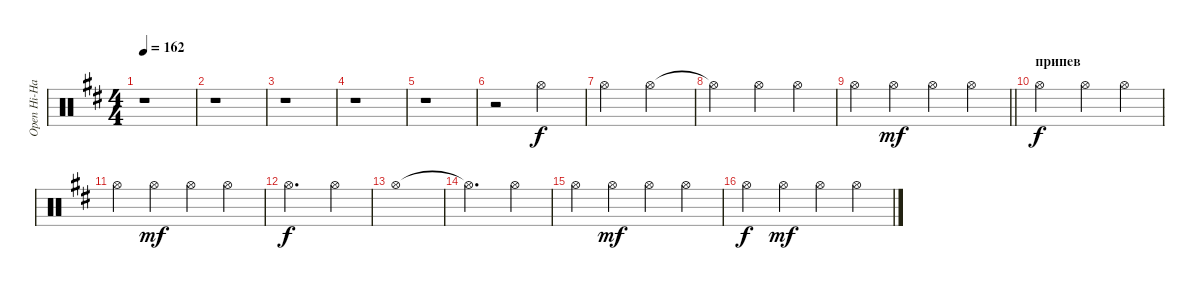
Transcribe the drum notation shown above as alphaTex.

\track ("Open Hi-Hat" "Open Hi-Ha") {instrument percussion}
\staff {score}
\articulation defaults
\ts (4 4)
\tempo 162
\clef neutral
\ks bminor
r.1{dy f} |
r.1 |
r.1 |
r.1 |
r.1 |
r.2 "Hi-Hat (open)".2 |
"Hi-Hat (open)".2 "Hi-Hat (open)".2 |
"Hi-Hat (open)"{t}.2 "Hi-Hat (open)".4 "Hi-Hat (open)".4 |
\barLineRight lightlight "Hi-Hat (open)".4 "Hi-Hat (open)".4{dy mf} "Hi-Hat (open)".4 "Hi-Hat (open)".4
|
\section ("" "припев")
"Hi-Hat (open)".2{dy f} "Hi-Hat (open)".4 "Hi-Hat (open)".4 |
"Hi-Hat (open)".4 "Hi-Hat (open)".4{dy mf} "Hi-Hat (open)".4 "Hi-Hat (open)".4 |
"Hi-Hat (open)".2{d dy f} "Hi-Hat (open)".4 |
"Hi-Hat (open)".1 |
"Hi-Hat (open)"{t}.2{d} "Hi-Hat (open)".4 |
"Hi-Hat (open)".4 "Hi-Hat (open)".4{dy mf} "Hi-Hat (open)".4 "Hi-Hat (open)".4 |
"Hi-Hat (open)".4{dy f} "Hi-Hat (open)".4{dy mf} "Hi-Hat (open)".4 "Hi-Hat (open)".4
